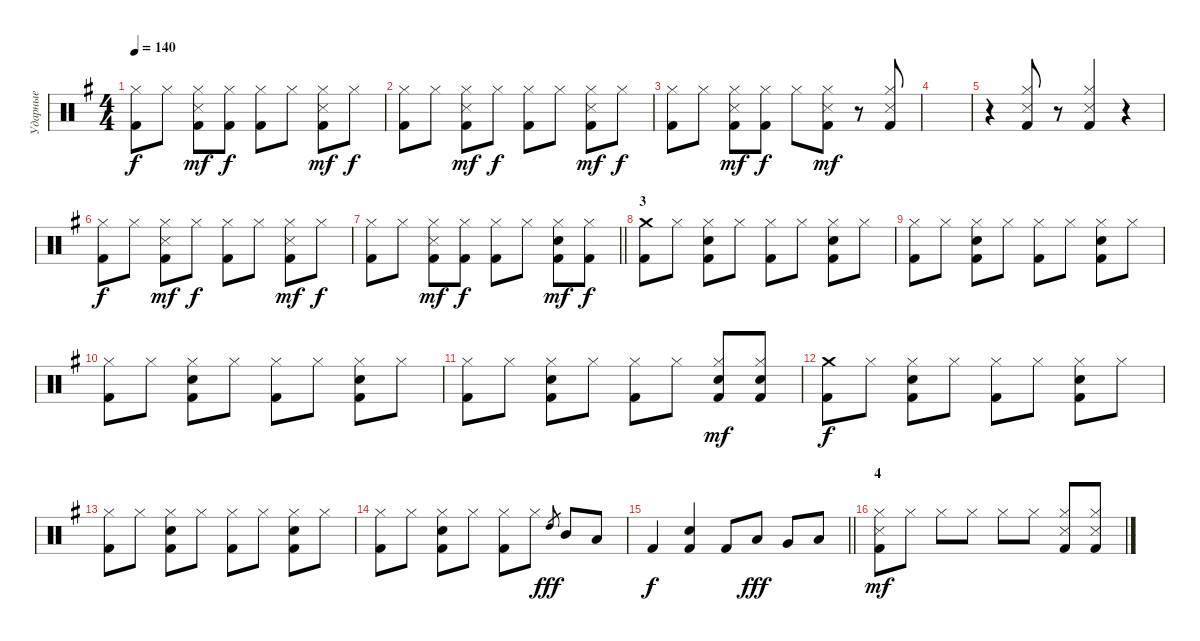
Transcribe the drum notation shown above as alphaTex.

\track ("Ударные" "Ударные") {instrument percussion}
\staff {score}
\articulation defaults
\ts (4 4)
\tempo 140
\clef neutral
\ks g
("Kick (hit) 2" "Hi-Hat (closed)").8{dy f} "Hi-Hat (closed)".8 ("Kick (hit) 2" "Metronome (hit)" "Hi-Hat (closed)").8{dy mf} ("Kick (hit) 2" "Hi-Hat (closed)").8{dy f} ("Kick (hit) 2" "Hi-Hat (closed)").8 "Hi-Hat (closed)".8 ("Kick (hit) 2" "Metronome (hit)" "Hi-Hat (closed)").8{dy mf} "Hi-Hat (closed)".8{dy f} |
("Kick (hit) 2" "Hi-Hat (closed)").8 "Hi-Hat (closed)".8 ("Kick (hit) 2" "Metronome (hit)" "Hi-Hat (closed)").8{dy mf} "Hi-Hat (closed)".8{dy f} ("Kick (hit) 2" "Hi-Hat (closed)").8 "Hi-Hat (closed)".8 ("Kick (hit) 2" "Metronome (hit)" "Hi-Hat (closed)").8{dy mf} "Hi-Hat (closed)".8{dy f} |
("Kick (hit) 2" "Hi-Hat (closed)").8 "Hi-Hat (closed)".8 ("Kick (hit) 2" "Metronome (hit)" "Hi-Hat (closed)").8{dy mf} ("Kick (hit) 2" "Hi-Hat (closed)").8{dy f} "Hi-Hat (closed)".8 ("Kick (hit) 2" "Metronome (hit)" "Hi-Hat (closed)").8{dy mf} r.8 ("Kick (hit) 2" "Metronome (hit)" "Hi-Hat (closed)").8 |
|
r.4 ("Kick (hit) 2" "Metronome (hit)" "Hi-Hat (closed)").8 r.8 ("Kick (hit) 2" "Metronome (hit)" "Hi-Hat (closed)").4 r.4 |
("Kick (hit) 2" "Hi-Hat (closed)").8{dy f} "Hi-Hat (closed)".8 ("Kick (hit) 2" "Metronome (hit)" "Hi-Hat (closed)").8{dy mf} "Hi-Hat (closed)".8{dy f} ("Kick (hit) 2" "Hi-Hat (closed)").8 "Hi-Hat (closed)".8 ("Kick (hit) 2" "Metronome (hit)" "Hi-Hat (closed)").8{dy mf} "Hi-Hat (closed)".8{dy f} |
\barLineRight lightlight
("Kick (hit) 2" "Hi-Hat (closed)").8 "Hi-Hat (closed)".8 ("Kick (hit) 2" "Metronome (hit)" "Hi-Hat (closed)").8{dy mf} ("Kick (hit) 2" "Hi-Hat (closed)").8{dy f} ("Kick (hit) 2" "Hi-Hat (closed)").8 "Hi-Hat (closed)".8 ("Kick (hit) 2" "Snare (hit) 2" "Hi-Hat (closed)").8{dy mf} ("Kick (hit) 2" "Hi-Hat (closed)").8{dy f} |
\section ("" "3")
("Kick (hit) 2" "Crash medium (hit)").8 "Hi-Hat (closed)".8 ("Kick (hit) 2" "Snare (hit) 2" "Hi-Hat (closed)").8 "Hi-Hat (closed)".8 ("Kick (hit) 2" "Hi-Hat (closed)").8 "Hi-Hat (closed)".8 ("Kick (hit) 2" "Snare (hit) 2" "Hi-Hat (closed)").8 "Hi-Hat (closed)".8 |
("Kick (hit) 2" "Hi-Hat (closed)").8 "Hi-Hat (closed)".8 ("Kick (hit) 2" "Snare (hit) 2" "Hi-Hat (closed)").8 "Hi-Hat (closed)".8 ("Kick (hit) 2" "Hi-Hat (closed)").8 "Hi-Hat (closed)".8 ("Kick (hit) 2" "Snare (hit) 2" "Hi-Hat (closed)").8 "Hi-Hat (closed)".8 |
("Kick (hit) 2" "Hi-Hat (closed)").8 "Hi-Hat (closed)".8 ("Kick (hit) 2" "Snare (hit) 2" "Hi-Hat (closed)").8 "Hi-Hat (closed)".8 ("Kick (hit) 2" "Hi-Hat (closed)").8 "Hi-Hat (closed)".8 ("Kick (hit) 2" "Snare (hit) 2" "Hi-Hat (closed)").8 "Hi-Hat (closed)".8 |
("Kick (hit) 2" "Hi-Hat (closed)").8 "Hi-Hat (closed)".8 ("Kick (hit) 2" "Snare (hit) 2" "Hi-Hat (closed)").8 "Hi-Hat (closed)".8 ("Kick (hit) 2" "Hi-Hat (closed)").8 "Hi-Hat (closed)".8 ("Kick (hit) 2" "Snare (hit) 2" "Hi-Hat (closed)").8{dy mf} ("Kick (hit) 2" "Snare (hit) 2" "Hi-Hat (closed)").8 |
("Kick (hit) 2" "Crash medium (hit)").8{dy f} "Hi-Hat (closed)".8 ("Kick (hit) 2" "Snare (hit) 2" "Hi-Hat (closed)").8 "Hi-Hat (closed)".8 ("Kick (hit) 2" "Hi-Hat (closed)").8 "Hi-Hat (closed)".8 ("Kick (hit) 2" "Snare (hit) 2" "Hi-Hat (closed)").8 "Hi-Hat (closed)".8 |
("Kick (hit) 2" "Hi-Hat (closed)").8 "Hi-Hat (closed)".8 ("Kick (hit) 2" "Snare (hit) 2" "Hi-Hat (closed)").8 "Hi-Hat (closed)".8 ("Kick (hit) 2" "Hi-Hat (closed)").8 "Hi-Hat (closed)".8 ("Kick (hit) 2" "Snare (hit) 2" "Hi-Hat (closed)").8 "Hi-Hat (closed)".8 |
("Kick (hit) 2" "Hi-Hat (closed)").8 "Hi-Hat (closed)".8 ("Kick (hit) 2" "Snare (hit) 2" "Hi-Hat (closed)").8 "Hi-Hat (closed)".8 ("Kick (hit) 2" "Hi-Hat (closed)").8 "Hi-Hat (closed)".8 "High Tom (hit)".8{gr dy fff} "Mid Tom (hit)".8 "Low Tom (hit)".8 |
\barLineRight lightlight "Kick (hit) 2".4{dy f}
("Kick (hit) 2" "Snare (hit) 2").4 "Kick (hit) 2".8 "Low Tom (hit)".8{dy fff} "Very Low Tom (hit)".8 "Low Floor Tom (hit)".8 |
\section ("" "4")
("Kick (hit) 2" "Hi-Hat (closed)" "Metronome (hit)").8{dy mf} "Hi-Hat (closed)".8 "Hi-Hat (closed)".8 "Hi-Hat (closed)".8 "Hi-Hat (closed)".8 "Hi-Hat (closed)".8 ("Kick (hit) 2" "Hi-Hat (closed)" "Metronome (hit)").8 ("Kick (hit) 2" "Hi-Hat (closed)" "Metronome (hit)").8
